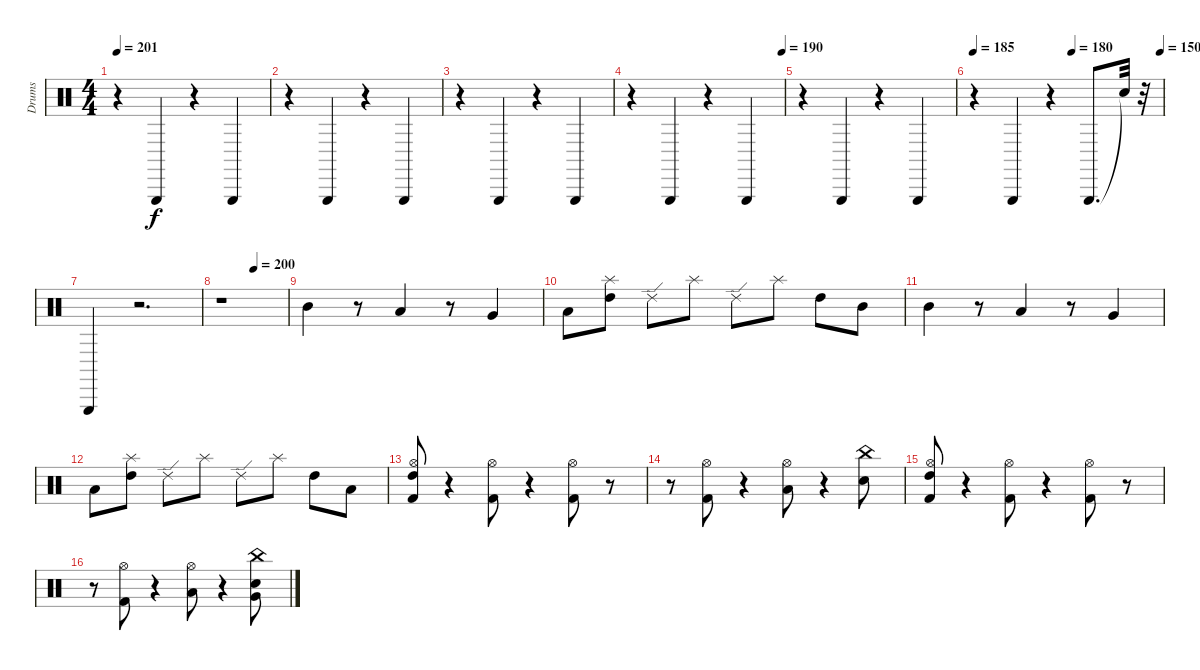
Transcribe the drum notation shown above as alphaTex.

\track ("Drums" "Drums") {instrument percussion}
\staff {score}
\articulation defaults
\ts (4 4)
\tempo 201
\clef neutral
\ks c
r.4{dy f} "Triangle (hit)".4 r.4 "Triangle (hit)".4 |
r.4 "Triangle (hit)".4 r.4 "Triangle (hit)".4 |
r.4 "Triangle (hit)".4 r.4 "Triangle (hit)".4 |
\tempo (190 0.9895833333333334)
r.4 "Triangle (hit)".4 r.4 "Triangle (hit)".4 |
r.4 "Triangle (hit)".4 r.4 "Triangle (hit)".4 |
\tempo 185
\tempo (180 0.5208333333333334)
\tempo (150 0.9895833333333334)
r.4 "Triangle (hit)".4 r.4 "Triangle (hit)".8{d} "Snare (hit)"{t}.32 r.32 |
"Triangle (hit)".4 r.2{d} |
\tempo (200 0.5)
r.1 |
"Mid Tom (hit)".4 r.8 "Low Tom (hit)".4 r.8 "Very Low Tom (hit)".4 |
"Low Floor Tom (hit)".8 ("Splash (hit)" "High Tom (hit)").8 "Ride (edge) 2".8 "Splash (hit)".8 "Ride (edge) 2".8 "Splash (hit)".8 "High Tom (hit)".8 "Mid Tom (hit)".8 |
"Mid Tom (hit)".4 r.8 "Low Tom (hit)".4 r.8 "Very Low Tom (hit)".4 |
"Low Floor Tom (hit)".8 ("Splash (hit)" "High Tom (hit)").8 "Ride (edge) 2".8 "Splash (hit)".8 "Ride (edge) 2".8 "Splash (hit)".8 "High Tom (hit)".8 "Low Tom (hit)".8 |
("High Tom (hit)" "Hi-Hat (open)" "Kick (hit) 2").8 r.4 ("Hi-Hat (open)" "Kick (hit) 2").8 r.4 ("Kick (hit) 2" "Hi-Hat (open)").8 r.8 |
r.8 ("Kick (hit) 2" "Hi-Hat (open)").8 r.4 ("Hi-Hat (open)" "Low Floor Tom (hit)").8 r.4 ("China (hit)" "Snare (hit) 2").8 |
("High Tom (hit)" "Kick (hit) 2" "Hi-Hat (open)").8 r.4 ("Kick (hit) 2" "Hi-Hat (open)").8 r.4 ("Kick (hit) 2" "Hi-Hat (open)").8 r.8 |
r.8 ("Kick (hit) 2" "Hi-Hat (open)").8 r.4 ("Low Floor Tom (hit)" "Hi-Hat (open)").8 r.4 ("Snare (hit) 2" "Very Low Tom (hit)" "China (hit)").8
